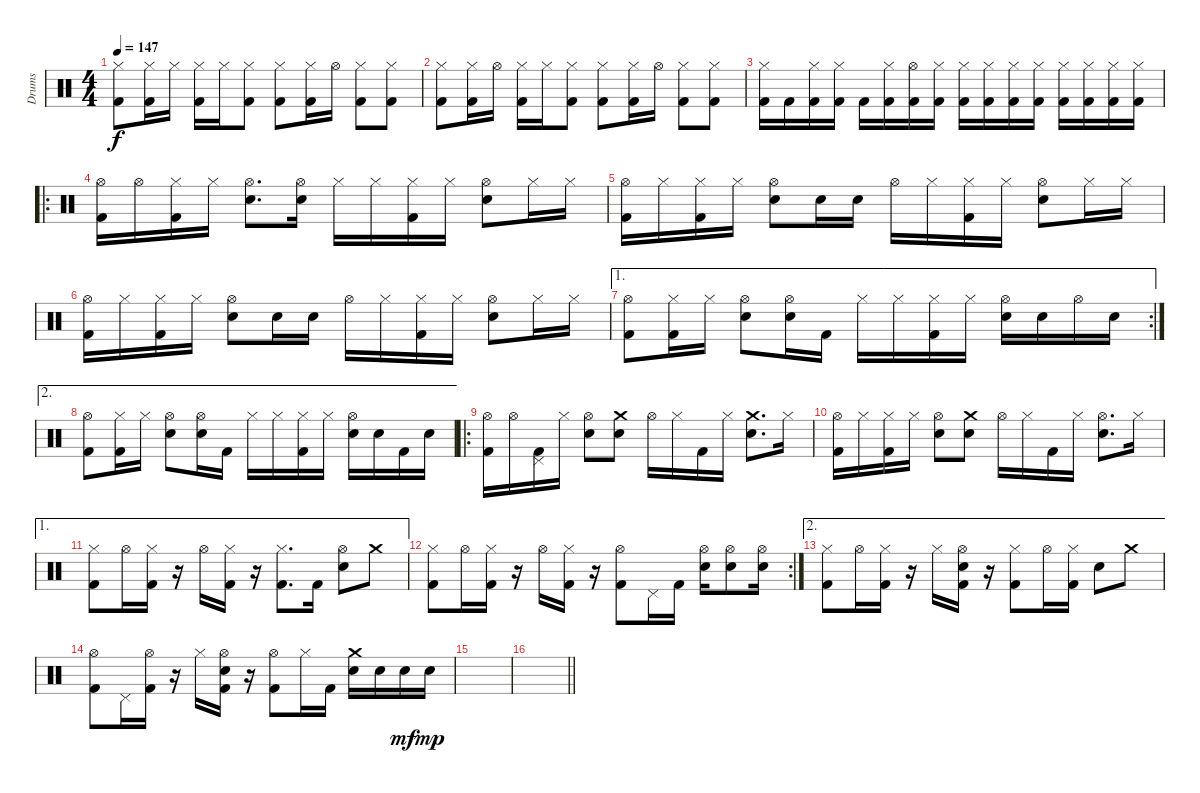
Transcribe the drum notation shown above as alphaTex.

\track ("Drums" "Drums") {instrument percussion}
\staff {score}
\articulation defaults
\ts (4 4)
\tempo 147
\clef neutral
\ks c
("Hi-Hat (closed)" "Kick (hit) 2").8{dy f} ("Hi-Hat (closed)" "Kick (hit) 2").16 "Hi-Hat (closed)".16 ("Hi-Hat (closed)" "Kick (hit) 2").16 "Hi-Hat (closed)".16 ("Hi-Hat (closed)" "Kick (hit) 2").8 ("Hi-Hat (closed)" "Kick (hit) 2").8 ("Hi-Hat (closed)" "Kick (hit) 2").16 "Hi-Hat (open)".16 ("Hi-Hat (closed)" "Kick (hit) 2").8 ("Hi-Hat (closed)" "Kick (hit) 2").8 |
("Hi-Hat (closed)" "Kick (hit) 2").8 ("Hi-Hat (closed)" "Kick (hit) 2").16 "Hi-Hat (open)".16 ("Hi-Hat (closed)" "Kick (hit) 2").16 "Hi-Hat (closed)".16 ("Hi-Hat (closed)" "Kick (hit) 2").8 ("Hi-Hat (closed)" "Kick (hit) 2").8 ("Hi-Hat (closed)" "Kick (hit) 2").16 "Hi-Hat (open)".16 ("Hi-Hat (closed)" "Kick (hit) 2").8 ("Hi-Hat (closed)" "Kick (hit) 2").8 |
("Hi-Hat (closed)" "Kick (hit) 2").16 "Kick (hit) 2".16 ("Hi-Hat (closed)" "Kick (hit) 2").16 ("Hi-Hat (closed)" "Kick (hit) 2").16 "Kick (hit) 2".16 ("Hi-Hat (closed)" "Kick (hit) 2").16 ("Hi-Hat (open)" "Kick (hit) 2").16 ("Hi-Hat (closed)" "Kick (hit) 2").16 ("Hi-Hat (closed)" "Kick (hit) 2").16 ("Hi-Hat (closed)" "Kick (hit) 2").16 ("Hi-Hat (closed)" "Kick (hit) 2").16 ("Hi-Hat (closed)" "Kick (hit) 2").16 ("Hi-Hat (closed)" "Kick (hit) 2").16 ("Hi-Hat (closed)" "Kick (hit) 2").16 ("Hi-Hat (closed)" "Kick (hit) 2").16 ("Hi-Hat (closed)" "Kick (hit) 2").16 |
\ro
("Hi-Hat (open)" "Kick (hit) 2").16 "Hi-Hat (open)".16 ("Hi-Hat (closed)" "Kick (hit) 2").16 "Hi-Hat (closed)".16 ("Hi-Hat (open)" "Electric Snare (hit)").8{d} ("Hi-Hat (open)" "Snare (hit) 2").16 "Hi-Hat (closed)".16 "Hi-Hat (closed)".16 ("Hi-Hat (closed)" "Kick (hit) 2").16 "Hi-Hat (closed)".16 ("Hi-Hat (open)" "Electric Snare (hit)").8 "Hi-Hat (closed)".16 "Hi-Hat (closed)".16 |
("Hi-Hat (open)" "Kick (hit) 2").16 "Hi-Hat (closed)".16 ("Hi-Hat (closed)" "Kick (hit) 2").16 "Hi-Hat (closed)".16 ("Hi-Hat (open)" "Electric Snare (hit)").8 "Snare (hit) 2".16 "Snare (hit) 2".16 "Hi-Hat (open)".16 "Hi-Hat (closed)".16 ("Hi-Hat (closed)" "Kick (hit) 2").16 "Hi-Hat (closed)".16 ("Hi-Hat (open)" "Electric Snare (hit)").8 "Hi-Hat (closed)".16 "Hi-Hat (closed)".16 |
("Hi-Hat (open)" "Kick (hit) 2").16 "Hi-Hat (closed)".16 ("Hi-Hat (closed)" "Kick (hit) 2").16 "Hi-Hat (closed)".16 ("Hi-Hat (open)" "Electric Snare (hit)").8 "Snare (hit) 2".16 "Snare (hit) 2".16 "Hi-Hat (open)".16 "Hi-Hat (closed)".16 ("Hi-Hat (closed)" "Kick (hit) 2").16 "Hi-Hat (closed)".16 ("Hi-Hat (open)" "Electric Snare (hit)").8 "Hi-Hat (closed)".16 "Hi-Hat (closed)".16 |
\ae 1
\rc 2
("Hi-Hat (open)" "Kick (hit) 2").8 ("Hi-Hat (closed)" "Kick (hit) 2").16 "Hi-Hat (closed)".16 ("Hi-Hat (open)" "Electric Snare (hit)").8 ("Hi-Hat (open)" "Snare (hit) 2").16 "Kick (hit) 2".16 "Hi-Hat (closed)".16 "Hi-Hat (closed)".16 ("Hi-Hat (closed)" "Kick (hit) 2").16 "Hi-Hat (closed)".16 ("Hi-Hat (open)" "Electric Snare (hit)").16 "Electric Snare (hit)".16 "Hi-Hat (open)".16 "Electric Snare (hit)".16 |
\ae 2
("Hi-Hat (open)" "Kick (hit) 2").8 ("Hi-Hat (closed)" "Kick (hit) 2").16 "Hi-Hat (closed)".16 ("Hi-Hat (open)" "Electric Snare (hit)").8 ("Hi-Hat (open)" "Electric Snare (hit)").16 "Kick (hit) 2".16 "Hi-Hat (closed)".16 "Hi-Hat (closed)".16 ("Hi-Hat (closed)" "Kick (hit) 2").16 "Hi-Hat (closed)".16 ("Hi-Hat (open)" "Electric Snare (hit)").16 "Electric Snare (hit)".16 "Kick (hit) 2".16 "Electric Snare (hit)".16 |
\ro
("Hi-Hat (open)" "Kick (hit) 2").16 "Hi-Hat (open)".16 ("Pedal Hi-Hat (hit)" "Kick (hit) 2").16 "Hi-Hat (closed)".16 ("Hi-Hat (open)" "Electric Snare (hit)").8 ("Crash medium (hit)" "Electric Snare (hit)").8 "Hi-Hat (open)".16 "Hi-Hat (closed)".16 "Kick (hit) 2".16 "Hi-Hat (closed)".16 ("Crash medium (hit)" "Electric Snare (hit)").8{d} "Hi-Hat (closed)".16 |
("Hi-Hat (open)" "Kick (hit) 2").16 "Hi-Hat (closed)".16 ("Hi-Hat (closed)" "Kick (hit) 2").16 "Hi-Hat (closed)".16 ("Hi-Hat (open)" "Electric Snare (hit)").8 ("Crash medium (hit)" "Electric Snare (hit)").8 "Hi-Hat (open)".16 "Hi-Hat (closed)".16 "Kick (hit) 2".16 "Hi-Hat (closed)".16 ("Hi-Hat (open)" "Electric Snare (hit)").8{d} "Hi-Hat (closed)".16 |
\ae 1
("Hi-Hat (closed)" "Kick (hit) 2").8 "Hi-Hat (open)".16 ("Hi-Hat (closed)" "Kick (hit) 2").16 r.16 "Hi-Hat (open)".16 ("Hi-Hat (closed)" "Kick (hit) 2").16 r.16 ("Hi-Hat (closed)" "Kick (hit) 2").8{d} "Kick (hit) 2".16 ("Hi-Hat (open)" "Electric Snare (hit)").8 "Crash medium (hit)".8 |
\rc 2
("Hi-Hat (closed)" "Kick (hit) 2").8 "Hi-Hat (open)".16 ("Hi-Hat (closed)" "Kick (hit) 2").16 r.16 "Hi-Hat (open)".16 ("Hi-Hat (closed)" "Kick (hit) 2").16 r.16 ("Hi-Hat (open)" "Kick (hit) 2").8 "Pedal Hi-Hat (hit)".16 "Kick (hit) 2".16 ("Hi-Hat (open)" "Electric Snare (hit)").16 ("Hi-Hat (open)" "Electric Snare (hit)").8 ("Hi-Hat (open)" "Electric Snare (hit)").16 |
\ae 2
("Hi-Hat (closed)" "Kick (hit) 2").8 "Hi-Hat (open)".16 ("Hi-Hat (closed)" "Kick (hit) 2").16 r.16 "Hi-Hat (closed)".16 ("Hi-Hat (open)" "Electric Snare (hit)" "Kick (hit) 2").16 r.16 ("Hi-Hat (closed)" "Kick (hit) 2").8 "Hi-Hat (open)".16 ("Hi-Hat (closed)" "Kick (hit) 2").16 "Electric Snare (hit)".8 "Crash medium (hit)".8 |
("Hi-Hat (open)" "Kick (hit) 2").8 "Pedal Hi-Hat (hit)".16 ("Hi-Hat (open)" "Kick (hit) 2").16 r.16 "Hi-Hat (closed)".16 ("Hi-Hat (open)" "Electric Snare (hit)" "Kick (hit) 2").16 r.16 ("Hi-Hat (open)" "Kick (hit) 2").8 "Hi-Hat (closed)".16 "Kick (hit) 2".16 ("Crash medium (hit)" "Electric Snare (hit)").16 "Electric Snare (hit)".16 "Electric Snare (hit)".16{dy mf} "Electric Snare (hit)".16{dy mp} |
|
\barLineRight lightlight
